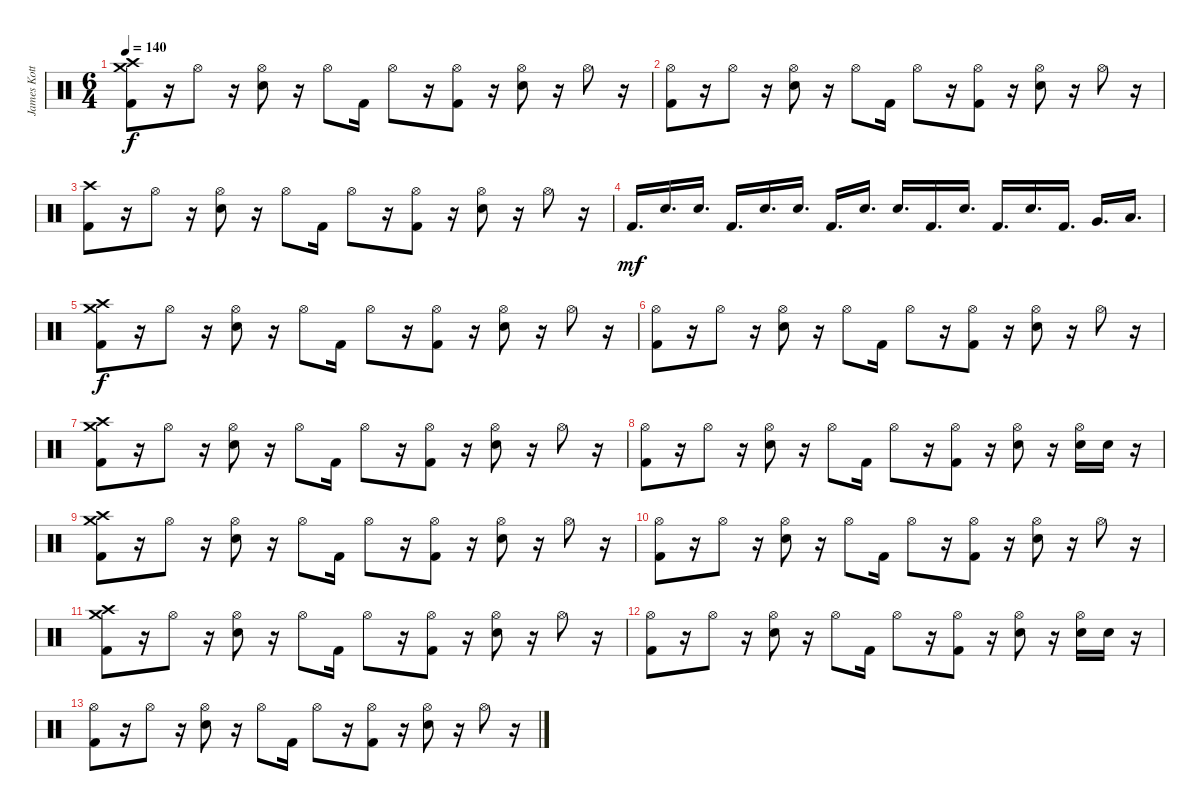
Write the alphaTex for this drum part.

\track ("James Kottak" "James Kott") {instrument percussion}
\staff {score}
\articulation defaults
\ts (6 4)
\tempo 140
\clef neutral
\ks c
("Crash high (hit)" "Crash medium (hit)" "Kick (hit) 2").8{dy f} r.16 "Hi-Hat (open)".8 r.16 ("Hi-Hat (open)" "Electric Snare (hit)").8 r.16 "Hi-Hat (open)".8 "Kick (hit) 2".16 "Hi-Hat (open)".8 r.16 ("Hi-Hat (open)" "Kick (hit) 2").8 r.16 ("Hi-Hat (open)" "Electric Snare (hit)").8 r.16 "Hi-Hat (open)".8 r.16 |
("Hi-Hat (open)" "Kick (hit) 2").8 r.16 "Hi-Hat (open)".8 r.16 ("Hi-Hat (open)" "Electric Snare (hit)").8 r.16 "Hi-Hat (open)".8 "Kick (hit) 2".16 "Hi-Hat (open)".8 r.16 ("Hi-Hat (open)" "Kick (hit) 2").8 r.16 ("Hi-Hat (open)" "Electric Snare (hit)").8 r.16 "Hi-Hat (open)".8 r.16 |
("Crash high (hit)" "Kick (hit) 2").8 r.16 "Hi-Hat (open)".8 r.16 ("Hi-Hat (open)" "Electric Snare (hit)").8 r.16 "Hi-Hat (open)".8 "Kick (hit) 2".16 "Hi-Hat (open)".8 r.16 ("Hi-Hat (open)" "Kick (hit) 2").8 r.16 ("Hi-Hat (open)" "Electric Snare (hit)").8 r.16 "Hi-Hat (open)".8 r.16 |
"Kick (hit) 2".16{d dy mf} "Electric Snare (hit)".16{d} "Electric Snare (hit)".16{d} "Kick (hit) 2".16{d} "Electric Snare (hit)".16{d} "Electric Snare (hit)".16{d} "Kick (hit) 2".16{d} "Electric Snare (hit)".16{d} "Electric Snare (hit)".16{d} "Kick (hit) 2".16{d} "Electric Snare (hit)".16{d} "Kick (hit) 2".16{d} "Electric Snare (hit)".16{d} "Kick (hit) 2".16{d} "Very Low Tom (hit)".16{d} "Low Floor Tom (hit)".16{d} |
("Crash high (hit)" "Crash medium (hit)" "Kick (hit) 2").8{dy f} r.16 "Hi-Hat (open)".8 r.16 ("Hi-Hat (open)" "Electric Snare (hit)").8 r.16 "Hi-Hat (open)".8 "Kick (hit) 2".16 "Hi-Hat (open)".8 r.16 ("Hi-Hat (open)" "Kick (hit) 2").8 r.16 ("Hi-Hat (open)" "Electric Snare (hit)").8 r.16 "Hi-Hat (open)".8 r.16 |
("Hi-Hat (open)" "Kick (hit) 2").8 r.16 "Hi-Hat (open)".8 r.16 ("Hi-Hat (open)" "Electric Snare (hit)").8 r.16 "Hi-Hat (open)".8 "Kick (hit) 2".16 "Hi-Hat (open)".8 r.16 ("Hi-Hat (open)" "Kick (hit) 2").8 r.16 ("Hi-Hat (open)" "Electric Snare (hit)").8 r.16 "Hi-Hat (open)".8 r.16 |
("Crash high (hit)" "Crash medium (hit)" "Kick (hit) 2").8 r.16 "Hi-Hat (open)".8 r.16 ("Hi-Hat (open)" "Electric Snare (hit)").8 r.16 "Hi-Hat (open)".8 "Kick (hit) 2".16 "Hi-Hat (open)".8 r.16 ("Hi-Hat (open)" "Kick (hit) 2").8 r.16 ("Hi-Hat (open)" "Electric Snare (hit)").8 r.16 "Hi-Hat (open)".8 r.16 |
("Hi-Hat (open)" "Kick (hit) 2").8 r.16 "Hi-Hat (open)".8 r.16 ("Hi-Hat (open)" "Electric Snare (hit)").8 r.16 "Hi-Hat (open)".8 "Kick (hit) 2".16 "Hi-Hat (open)".8 r.16 ("Hi-Hat (open)" "Kick (hit) 2").8 r.16 ("Hi-Hat (open)" "Electric Snare (hit)").8 r.16 ("Hi-Hat (open)" "Electric Snare (hit)").16 "Electric Snare (hit)".16 r.16 |
("Crash high (hit)" "Crash medium (hit)" "Kick (hit) 2").8{volume 8} r.16 "Hi-Hat (open)".8 r.16 ("Hi-Hat (open)" "Electric Snare (hit)").8 r.16 "Hi-Hat (open)".8 "Kick (hit) 2".16 "Hi-Hat (open)".8 r.16 ("Hi-Hat (open)" "Kick (hit) 2").8 r.16 ("Hi-Hat (open)" "Electric Snare (hit)").8 r.16 "Hi-Hat (open)".8 r.16 |
("Hi-Hat (open)" "Kick (hit) 2").8{volume 7} r.16 "Hi-Hat (open)".8 r.16 ("Hi-Hat (open)" "Electric Snare (hit)").8 r.16 "Hi-Hat (open)".8 "Kick (hit) 2".16 "Hi-Hat (open)".8 r.16 ("Hi-Hat (open)" "Kick (hit) 2").8 r.16 ("Hi-Hat (open)" "Electric Snare (hit)").8 r.16 "Hi-Hat (open)".8 r.16 |
("Crash high (hit)" "Crash medium (hit)" "Kick (hit) 2").8{volume 6} r.16 "Hi-Hat (open)".8 r.16 ("Hi-Hat (open)" "Electric Snare (hit)").8 r.16 "Hi-Hat (open)".8{volume 4} "Kick (hit) 2".16 "Hi-Hat (open)".8 r.16 ("Hi-Hat (open)" "Kick (hit) 2").8 r.16 ("Hi-Hat (open)" "Electric Snare (hit)").8 r.16 "Hi-Hat (open)".8 r.16 |
("Hi-Hat (open)" "Kick (hit) 2").8{volume 2} r.16 "Hi-Hat (open)".8 r.16 ("Hi-Hat (open)" "Electric Snare (hit)").8 r.16 "Hi-Hat (open)".8 "Kick (hit) 2".16 "Hi-Hat (open)".8 r.16 ("Hi-Hat (open)" "Kick (hit) 2").8 r.16 ("Hi-Hat (open)" "Electric Snare (hit)").8 r.16 ("Hi-Hat (open)" "Electric Snare (hit)").16 "Electric Snare (hit)".16 r.16 |
("Hi-Hat (open)" "Kick (hit) 2").8{volume 1} r.16 "Hi-Hat (open)".8 r.16 ("Hi-Hat (open)" "Electric Snare (hit)").8 r.16 "Hi-Hat (open)".8 "Kick (hit) 2".16 "Hi-Hat (open)".8 r.16 ("Hi-Hat (open)" "Kick (hit) 2").8 r.16 ("Hi-Hat (open)" "Electric Snare (hit)").8 r.16 "Hi-Hat (open)".8 r.16
